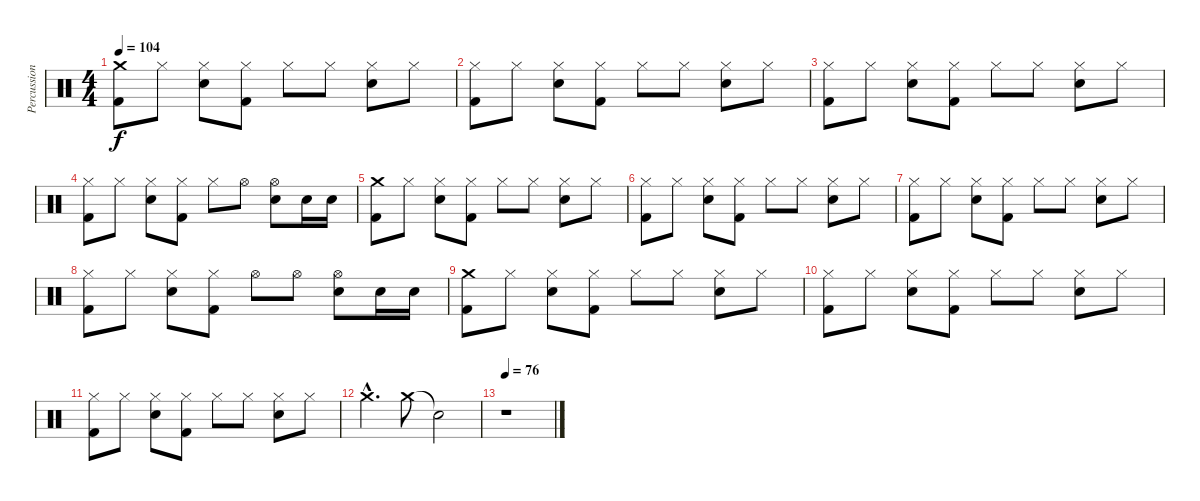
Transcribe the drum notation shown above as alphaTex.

\track ("Percussion" "Percussion") {instrument percussion}
\staff {score}
\articulation defaults
\ts (4 4)
\tempo 104
\clef neutral
\ks c
("Crash medium (hit)" "Kick (hit) 2").8{dy f} "Hi-Hat (closed)".8 ("Hi-Hat (closed)" "Electric Snare (hit)").8 ("Hi-Hat (closed)" "Kick (hit) 2").8 "Hi-Hat (closed)".8 "Hi-Hat (closed)".8 ("Hi-Hat (closed)" "Electric Snare (hit)").8 "Hi-Hat (closed)".8 |
("Hi-Hat (closed)" "Kick (hit) 2").8 "Hi-Hat (closed)".8 ("Hi-Hat (closed)" "Electric Snare (hit)").8 ("Hi-Hat (closed)" "Kick (hit) 2").8 "Hi-Hat (closed)".8 "Hi-Hat (closed)".8 ("Hi-Hat (closed)" "Electric Snare (hit)").8 "Hi-Hat (closed)".8 |
("Hi-Hat (closed)" "Kick (hit) 2").8 "Hi-Hat (closed)".8 ("Hi-Hat (closed)" "Electric Snare (hit)").8 ("Hi-Hat (closed)" "Kick (hit) 2").8 "Hi-Hat (closed)".8 "Hi-Hat (closed)".8 ("Hi-Hat (closed)" "Electric Snare (hit)").8 "Hi-Hat (closed)".8 |
("Hi-Hat (closed)" "Kick (hit) 2").8 "Hi-Hat (closed)".8 ("Hi-Hat (closed)" "Electric Snare (hit)").8 ("Hi-Hat (closed)" "Kick (hit) 2").8 "Hi-Hat (closed)".8 "Hi-Hat (open)".8 ("Hi-Hat (open)" "Electric Snare (hit)").8 "Electric Snare (hit)".16 "Electric Snare (hit)".16 |
("Crash medium (hit)" "Kick (hit) 2").8 "Hi-Hat (closed)".8 ("Hi-Hat (closed)" "Electric Snare (hit)").8 ("Hi-Hat (closed)" "Kick (hit) 2").8 "Hi-Hat (closed)".8 "Hi-Hat (closed)".8 ("Hi-Hat (closed)" "Electric Snare (hit)").8 "Hi-Hat (closed)".8 |
("Hi-Hat (closed)" "Kick (hit) 2").8 "Hi-Hat (closed)".8 ("Hi-Hat (closed)" "Electric Snare (hit)").8 ("Hi-Hat (closed)" "Kick (hit) 2").8 "Hi-Hat (closed)".8 "Hi-Hat (closed)".8 ("Hi-Hat (closed)" "Electric Snare (hit)").8 "Hi-Hat (closed)".8 |
("Hi-Hat (closed)" "Kick (hit) 2").8 "Hi-Hat (closed)".8 ("Hi-Hat (closed)" "Electric Snare (hit)").8 ("Hi-Hat (closed)" "Kick (hit) 2").8 "Hi-Hat (closed)".8 "Hi-Hat (closed)".8 ("Hi-Hat (closed)" "Electric Snare (hit)").8 "Hi-Hat (closed)".8 |
("Hi-Hat (closed)" "Kick (hit) 2").8 "Hi-Hat (closed)".8 ("Hi-Hat (closed)" "Electric Snare (hit)").8 ("Hi-Hat (closed)" "Kick (hit) 2").8 "Hi-Hat (open)".8 "Hi-Hat (open)".8 ("Hi-Hat (open)" "Electric Snare (hit)").8 "Electric Snare (hit)".16 "Electric Snare (hit)".16 |
("Crash medium (hit)" "Kick (hit) 2").8 "Hi-Hat (closed)".8 ("Hi-Hat (closed)" "Electric Snare (hit)").8 ("Hi-Hat (closed)" "Kick (hit) 2").8 "Hi-Hat (closed)".8 "Hi-Hat (closed)".8 ("Hi-Hat (closed)" "Electric Snare (hit)").8 "Hi-Hat (closed)".8 |
("Hi-Hat (closed)" "Kick (hit) 2").8 "Hi-Hat (closed)".8 ("Hi-Hat (closed)" "Electric Snare (hit)").8 ("Hi-Hat (closed)" "Kick (hit) 2").8 "Hi-Hat (closed)".8 "Hi-Hat (closed)".8 ("Hi-Hat (closed)" "Electric Snare (hit)").8 "Hi-Hat (closed)".8 |
("Hi-Hat (closed)" "Kick (hit) 2").8 "Hi-Hat (closed)".8 ("Hi-Hat (closed)" "Electric Snare (hit)").8 ("Hi-Hat (closed)" "Kick (hit) 2").8 "Hi-Hat (closed)".8 "Hi-Hat (closed)".8 ("Hi-Hat (closed)" "Electric Snare (hit)").8 "Hi-Hat (closed)".8 |
"Crash medium (hit)"{hac}.4{d} "Crash medium (hit)".8 "Snare (hit)"{t}.2 |
\tempo 76
r.1
